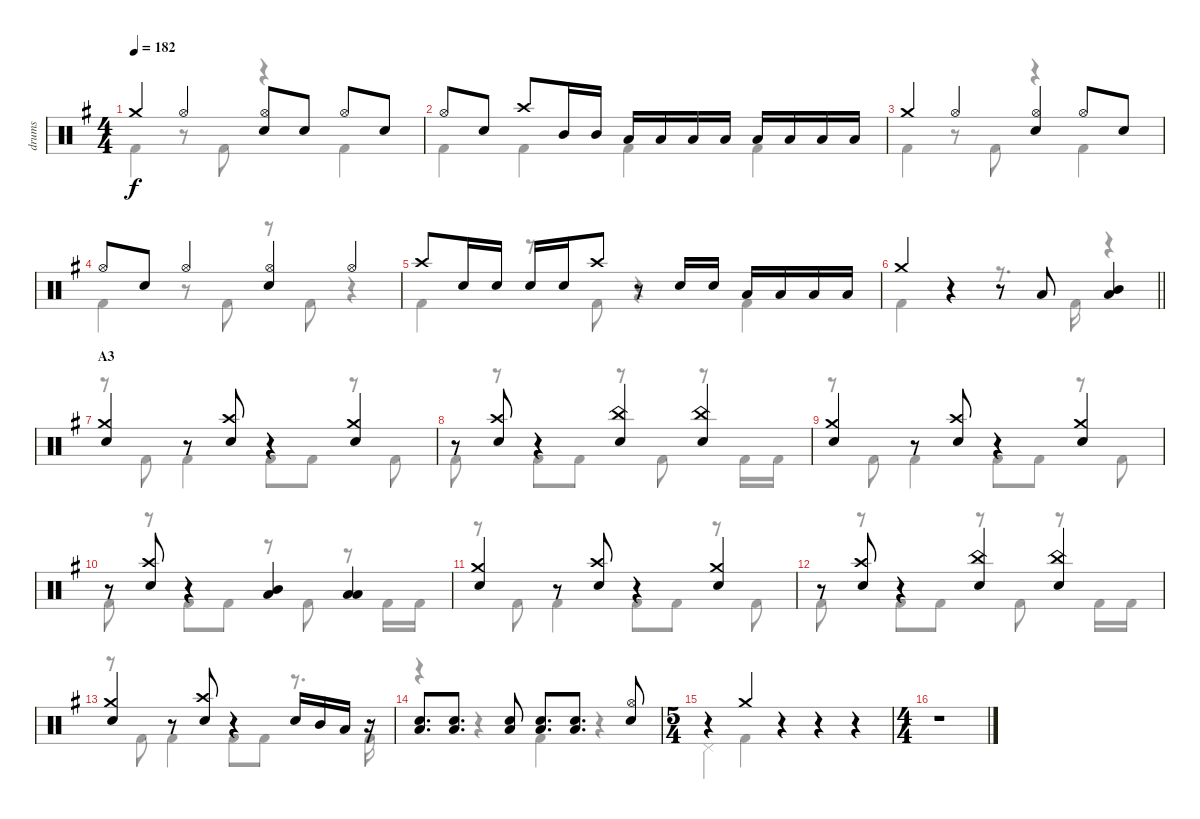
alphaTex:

\track ("drums" "drums") {instrument percussion}
\staff {score}
\articulation defaults
\voice
\ts (4 4)
\tempo 182
\clef neutral
\ks g "Crash medium (hit)".4{dy f} "Hi-Hat (open)".4
("Hi-Hat (open)" "Snare (hit) 2").8 "Snare (hit) 2".8 "Hi-Hat (open)".8 "Snare (hit) 2".8 |
"Hi-Hat (open)".8 "Snare (hit) 2".8 "Crash high (hit)".8 "Mid Tom (hit)".16 "Mid Tom (hit)".16 "Low Tom (hit)".16 "Low Tom (hit)".16 "Low Tom (hit)".16 "Low Tom (hit)".16 "Low Floor Tom (hit)".16 "Low Floor Tom (hit)".16 "Low Floor Tom (hit)".16 "Low Floor Tom (hit)".16 |
"Crash medium (hit)".4 "Hi-Hat (open)".4 ("Hi-Hat (open)" "Snare (hit) 2").4 "Hi-Hat (open)".8 "Snare (hit) 2".8 |
"Hi-Hat (open)".8 "Snare (hit) 2".8 "Hi-Hat (open)".4 ("Hi-Hat (open)" "Snare (hit) 2").4 "Hi-Hat (open)".4 |
"Crash high (hit)".8 "Snare (hit) 2".16 "Snare (hit) 2".16 "Snare (hit) 2".16 "Snare (hit) 2".16 "Crash high (hit)".8 r.8 "Snare (hit) 2".16 "Snare (hit) 2".16 "Low Tom (hit)".16 "Low Tom (hit)".16 "Low Floor Tom (hit)".16 "Low Floor Tom (hit)".16 |
\barLineRight lightlight "Crash medium (hit)".4
r.4 r.8 "Low Tom (hit)".8 ("Mid Tom (hit)" "Low Floor Tom (hit)").4 |
\section ("" "A3")
("Crash medium (hit)" "Snare (hit) 2").4 r.8 ("Crash high (hit)" "Snare (hit) 2").8 r.4 ("Crash medium (hit)" "Snare (hit) 2").4 |
r.8 ("Crash high (hit)" "Snare (hit) 2").8 r.4 ("China (hit)" "Snare (hit) 2").4 ("China (hit)" "Snare (hit) 2").4 |
("Crash medium (hit)" "Snare (hit) 2").4 r.8 ("Crash high (hit)" "Snare (hit) 2").8 r.4 ("Crash medium (hit)" "Snare (hit) 2").4 |
r.8 ("Crash high (hit)" "Snare (hit) 2").8 r.4 ("Mid Tom (hit)" "Low Tom (hit)").4 ("Low Tom (hit)" "Low Floor Tom (hit)").4 |
("Crash medium (hit)" "Snare (hit) 2").4 r.8 ("Crash high (hit)" "Snare (hit) 2").8 r.4 ("Crash medium (hit)" "Snare (hit) 2").4 |
r.8 ("Crash high (hit)" "Snare (hit) 2").8 r.4 ("China (hit)" "Snare (hit) 2").4 ("China (hit)" "Snare (hit) 2").4 |
("Crash medium (hit)" "Snare (hit) 2").4 r.8 ("Crash high (hit)" "Snare (hit) 2").8 r.4 "Snare (hit) 2".16 "Mid Tom (hit)".16 "Low Tom (hit)".16 r.16 |
("Snare (hit) 2" "Low Floor Tom (hit)").8{d} ("Snare (hit) 2" "Low Floor Tom (hit)").8{d} ("Snare (hit) 2" "Low Floor Tom (hit)").8 ("Snare (hit) 2" "Low Floor Tom (hit)").8{d} ("Snare (hit) 2" "Low Floor Tom (hit)").8{d} ("Hi-Hat (open)" "Snare (hit) 2").8 |
\ts (5 4)
r.4 "Crash medium (hit)".4 r.4 r.4 r.4 |
\ts (4 4)
r.1
\voice
\clef neutral
\ottava regular
\simile none
\ks g "Kick (hit) 2".4{dy f}
r.8 "Kick (hit) 2".8 r.4 "Kick (hit) 2".4 |
"Kick (hit) 2".4 "Kick (hit) 2".4 "Kick (hit) 2".4 "Kick (hit) 2".4 |
"Kick (hit) 2".4 r.8 "Kick (hit) 2".8 r.4 "Kick (hit) 2".4 |
"Kick (hit) 2".4 r.8 "Kick (hit) 2".8 r.8 "Kick (hit) 2".8 r.4 |
"Kick (hit) 2".4 r.8 "Kick (hit) 2".8 r.4 "Kick (hit) 2".4 |
\barLineRight lightlight "Kick (hit) 2".4
r.4 r.8{d} "Kick (hit) 2".16 r.4 |
r.8 "Kick (hit) 2".8 "Kick (hit) 2".4 "Kick (hit) 2".8 "Kick (hit) 2".8 r.8 "Kick (hit) 2".8 |
"Kick (hit) 2".8 r.8 "Kick (hit) 2".8 "Kick (hit) 2".8 r.8 "Kick (hit) 2".8 r.8 "Kick (hit) 2".16 "Kick (hit) 2".16 |
r.8 "Kick (hit) 2".8 "Kick (hit) 2".4 "Kick (hit) 2".8 "Kick (hit) 2".8 r.8 "Kick (hit) 2".8 |
"Kick (hit) 2".8 r.8 "Kick (hit) 2".8 "Kick (hit) 2".8 r.8 "Kick (hit) 2".8 r.8 "Kick (hit) 2".16 "Kick (hit) 2".16 |
r.8 "Kick (hit) 2".8 "Kick (hit) 2".4 "Kick (hit) 2".8 "Kick (hit) 2".8 r.8 "Kick (hit) 2".8 |
"Kick (hit) 2".8 r.8 "Kick (hit) 2".8 "Kick (hit) 2".8 r.8 "Kick (hit) 2".8 r.8 "Kick (hit) 2".16 "Kick (hit) 2".16 |
r.8 "Kick (hit) 2".8 "Kick (hit) 2".4 "Kick (hit) 2".8 "Kick (hit) 2".8 r.8{d} "Kick (hit) 2".16 |
r.4 r.4 "Kick (hit) 2".4 r.4 |
"Pedal Hi-Hat (hit)".4 "Kick (hit) 2".4 r.4 r.4 r.4 |
